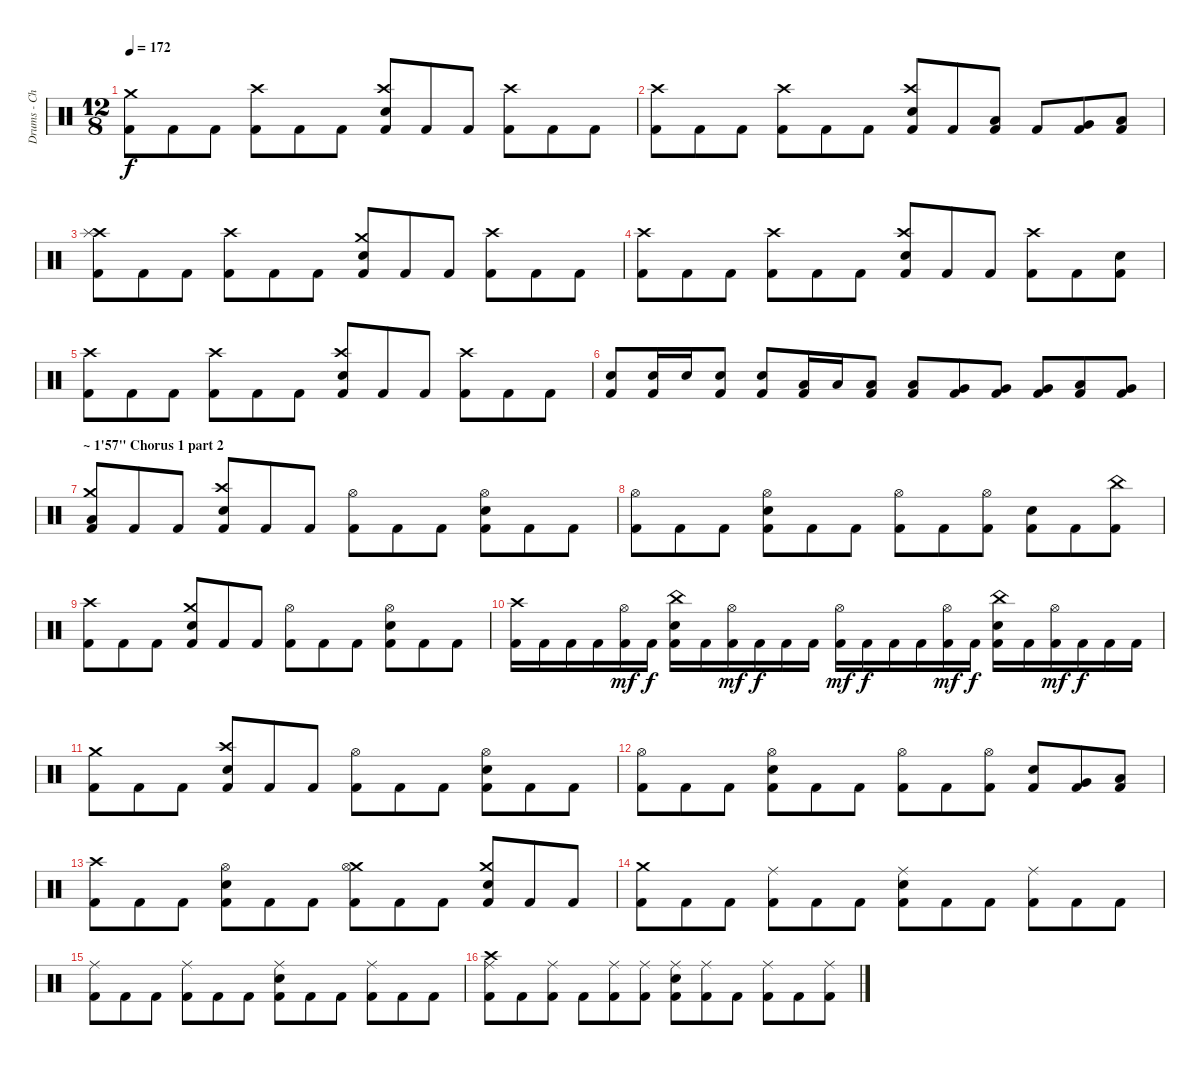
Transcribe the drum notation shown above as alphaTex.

\track ("Drums - Christopher Merzinsky" "Drums - Ch") {instrument percussion}
\staff {score}
\articulation defaults
\ts (12 8)
\tempo 172
\clef neutral
\ks c
("Kick (hit) 2" "Crash medium (hit)").8{dy f} "Kick (hit) 2".8 "Kick (hit) 2".8 ("Kick (hit) 2" "Crash high (hit)").8 "Kick (hit) 2".8 "Kick (hit) 2".8 ("Electric Snare (hit)" "Kick (hit) 2" "Crash high (hit)").8 "Kick (hit) 2".8 "Kick (hit) 2".8 ("Kick (hit) 2" "Crash high (hit)").8 "Kick (hit) 2".8 "Kick (hit) 2".8 |
("Kick (hit) 2" "Crash high (hit)").8 "Kick (hit) 2".8 "Kick (hit) 2".8 ("Kick (hit) 2" "Crash high (hit)").8 "Kick (hit) 2".8 "Kick (hit) 2".8 ("Electric Snare (hit)" "Kick (hit) 2" "Crash high (hit)").8 "Kick (hit) 2".8 ("Kick (hit) 2" "Low Tom (hit)").8 "Kick (hit) 2".8 ("Kick (hit) 2" "Very Low Tom (hit)").8 ("Kick (hit) 2" "Low Floor Tom (hit)").8 |
("Kick (hit) 2" "Crash high (hit)" "Splash (hit)").8 "Kick (hit) 2".8 "Kick (hit) 2".8 ("Kick (hit) 2" "Crash high (hit)").8 "Kick (hit) 2".8 "Kick (hit) 2".8 ("Electric Snare (hit)" "Kick (hit) 2" "Crash medium (hit)").8 "Kick (hit) 2".8 "Kick (hit) 2".8 ("Kick (hit) 2" "Crash high (hit)").8 "Kick (hit) 2".8 "Kick (hit) 2".8 |
("Kick (hit) 2" "Crash high (hit)").8 "Kick (hit) 2".8 "Kick (hit) 2".8 ("Kick (hit) 2" "Crash high (hit)").8 "Kick (hit) 2".8 "Kick (hit) 2".8 ("Electric Snare (hit)" "Kick (hit) 2" "Crash high (hit)").8 "Kick (hit) 2".8 "Kick (hit) 2".8 ("Kick (hit) 2" "Crash high (hit)").8 "Kick (hit) 2".8 ("Kick (hit) 2" "Electric Snare (hit)").8 |
("Kick (hit) 2" "Crash high (hit)").8 "Kick (hit) 2".8 "Kick (hit) 2".8 ("Kick (hit) 2" "Crash high (hit)").8 "Kick (hit) 2".8 "Kick (hit) 2".8 ("Electric Snare (hit)" "Kick (hit) 2" "Crash high (hit)").8 "Kick (hit) 2".8 "Kick (hit) 2".8 ("Kick (hit) 2" "Crash high (hit)").8 "Kick (hit) 2".8 "Kick (hit) 2".8 |
("Kick (hit) 2" "Electric Snare (hit)").8 ("Kick (hit) 2" "Electric Snare (hit)").16 "Electric Snare (hit)".16 ("Kick (hit) 2" "Electric Snare (hit)").8 ("Kick (hit) 2" "Electric Snare (hit)").8 ("Kick (hit) 2" "Low Tom (hit)").16 "Low Tom (hit)".16 ("Kick (hit) 2" "Low Tom (hit)").8 ("Kick (hit) 2" "Low Tom (hit)").8 ("Kick (hit) 2" "Very Low Tom (hit)").8 ("Kick (hit) 2" "Very Low Tom (hit)").8 ("Kick (hit) 2" "Very Low Tom (hit)").8 ("Kick (hit) 2" "Low Tom (hit)").8 ("Kick (hit) 2" "Very Low Tom (hit)").8 |
\section ("" "~ 1'57\" Chorus 1 part 2")
("Low Floor Tom (hit)" "Crash medium (hit)" "Kick (hit) 2").8 "Kick (hit) 2".8 "Kick (hit) 2".8 ("Crash high (hit)" "Electric Snare (hit)" "Kick (hit) 2").8 "Kick (hit) 2".8 "Kick (hit) 2".8 ("Kick (hit) 2" "Hi-Hat (open)").8 "Kick (hit) 2".8 "Kick (hit) 2".8 ("Electric Snare (hit)" "Kick (hit) 2" "Hi-Hat (open)").8 "Kick (hit) 2".8 "Kick (hit) 2".8 |
("Kick (hit) 2" "Hi-Hat (open)").8 "Kick (hit) 2".8 "Kick (hit) 2".8 ("Electric Snare (hit)" "Kick (hit) 2" "Hi-Hat (open)").8 "Kick (hit) 2".8 "Kick (hit) 2".8 ("Kick (hit) 2" "Hi-Hat (open)").8 "Kick (hit) 2".8 ("Kick (hit) 2" "Hi-Hat (open)").8 ("Electric Snare (hit)" "Kick (hit) 2").8 "Kick (hit) 2".8 ("Kick (hit) 2" "China (hit)").8 |
("Kick (hit) 2" "Crash high (hit)").8 "Kick (hit) 2".8 "Kick (hit) 2".8 ("Electric Snare (hit)" "Kick (hit) 2" "Crash medium (hit)").8 "Kick (hit) 2".8 "Kick (hit) 2".8 ("Kick (hit) 2" "Hi-Hat (open)").8 "Kick (hit) 2".8 "Kick (hit) 2".8 ("Electric Snare (hit)" "Kick (hit) 2" "Hi-Hat (open)").8 "Kick (hit) 2".8 "Kick (hit) 2".8 |
("Kick (hit) 2" "Crash high (hit)").16 "Kick (hit) 2".16 "Kick (hit) 2".16 "Kick (hit) 2".16 ("Kick (hit) 2" "Hi-Hat (open)").16{dy mf} "Kick (hit) 2".16{dy f} ("Electric Snare (hit)" "Kick (hit) 2" "China (hit)").16 "Kick (hit) 2".16 ("Kick (hit) 2" "Hi-Hat (open)").16{dy mf} "Kick (hit) 2".16{dy f} "Kick (hit) 2".16 "Kick (hit) 2".16 ("Kick (hit) 2" "Hi-Hat (open)").16{dy mf} "Kick (hit) 2".16{dy f} "Kick (hit) 2".16 "Kick (hit) 2".16 ("Kick (hit) 2" "Hi-Hat (open)").16{dy mf} "Kick (hit) 2".16{dy f} ("Electric Snare (hit)" "Kick (hit) 2" "China (hit)").16 "Kick (hit) 2".16 ("Kick (hit) 2" "Hi-Hat (open)").16{dy mf} "Kick (hit) 2".16{dy f} "Kick (hit) 2".16 "Kick (hit) 2".16 |
("Kick (hit) 2" "Crash medium (hit)").8 "Kick (hit) 2".8 "Kick (hit) 2".8 ("Electric Snare (hit)" "Kick (hit) 2" "Crash high (hit)").8 "Kick (hit) 2".8 "Kick (hit) 2".8 ("Kick (hit) 2" "Hi-Hat (open)").8 "Kick (hit) 2".8 "Kick (hit) 2".8 ("Electric Snare (hit)" "Kick (hit) 2" "Hi-Hat (open)").8 "Kick (hit) 2".8 "Kick (hit) 2".8 |
("Kick (hit) 2" "Hi-Hat (open)").8 "Kick (hit) 2".8 "Kick (hit) 2".8 ("Electric Snare (hit)" "Kick (hit) 2" "Hi-Hat (open)").8 "Kick (hit) 2".8 "Kick (hit) 2".8 ("Kick (hit) 2" "Hi-Hat (open)").8 "Kick (hit) 2".8 ("Kick (hit) 2" "Hi-Hat (open)").8 ("Electric Snare (hit)" "Kick (hit) 2").8 ("Kick (hit) 2" "Very Low Tom (hit)").8 ("Kick (hit) 2" "Low Floor Tom (hit)").8 |
("Kick (hit) 2" "Crash high (hit)").8 "Kick (hit) 2".8 "Kick (hit) 2".8 ("Electric Snare (hit)" "Kick (hit) 2" "Hi-Hat (open)").8 "Kick (hit) 2".8 "Kick (hit) 2".8 ("Kick (hit) 2" "Crash medium (hit)" "Hi-Hat (open)").8 "Kick (hit) 2".8 "Kick (hit) 2".8 ("Electric Snare (hit)" "Kick (hit) 2" "Crash medium (hit)").8 "Kick (hit) 2".8 "Kick (hit) 2".8 |
("Kick (hit) 2" "Crash medium (hit)").8 "Kick (hit) 2".8 "Kick (hit) 2".8 ("Kick (hit) 2" "Ride (middle)").8 "Kick (hit) 2".8 "Kick (hit) 2".8 ("Electric Snare (hit)" "Kick (hit) 2" "Ride (middle)").8 "Kick (hit) 2".8 "Kick (hit) 2".8 ("Kick (hit) 2" "Ride (middle)").8 "Kick (hit) 2".8 "Kick (hit) 2".8 |
("Kick (hit) 2" "Ride (middle)").8 "Kick (hit) 2".8 "Kick (hit) 2".8 ("Kick (hit) 2" "Ride (middle)").8 "Kick (hit) 2".8 "Kick (hit) 2".8 ("Electric Snare (hit)" "Kick (hit) 2" "Ride (middle)").8 "Kick (hit) 2".8 "Kick (hit) 2".8 ("Kick (hit) 2" "Ride (middle)").8 "Kick (hit) 2".8 "Kick (hit) 2".8 |
("Ride (middle)" "Kick (hit) 2" "Crash high (hit)").8 "Kick (hit) 2".8 ("Ride (middle)" "Kick (hit) 2").8 "Kick (hit) 2".8 ("Ride (middle)" "Kick (hit) 2").8 ("Ride (middle)" "Kick (hit) 2").8 ("Ride (middle)" "Electric Snare (hit)" "Kick (hit) 2").8 ("Ride (middle)" "Kick (hit) 2").8 "Kick (hit) 2".8 ("Ride (middle)" "Kick (hit) 2").8 "Kick (hit) 2".8 ("Kick (hit) 2" "Ride (middle)").8
